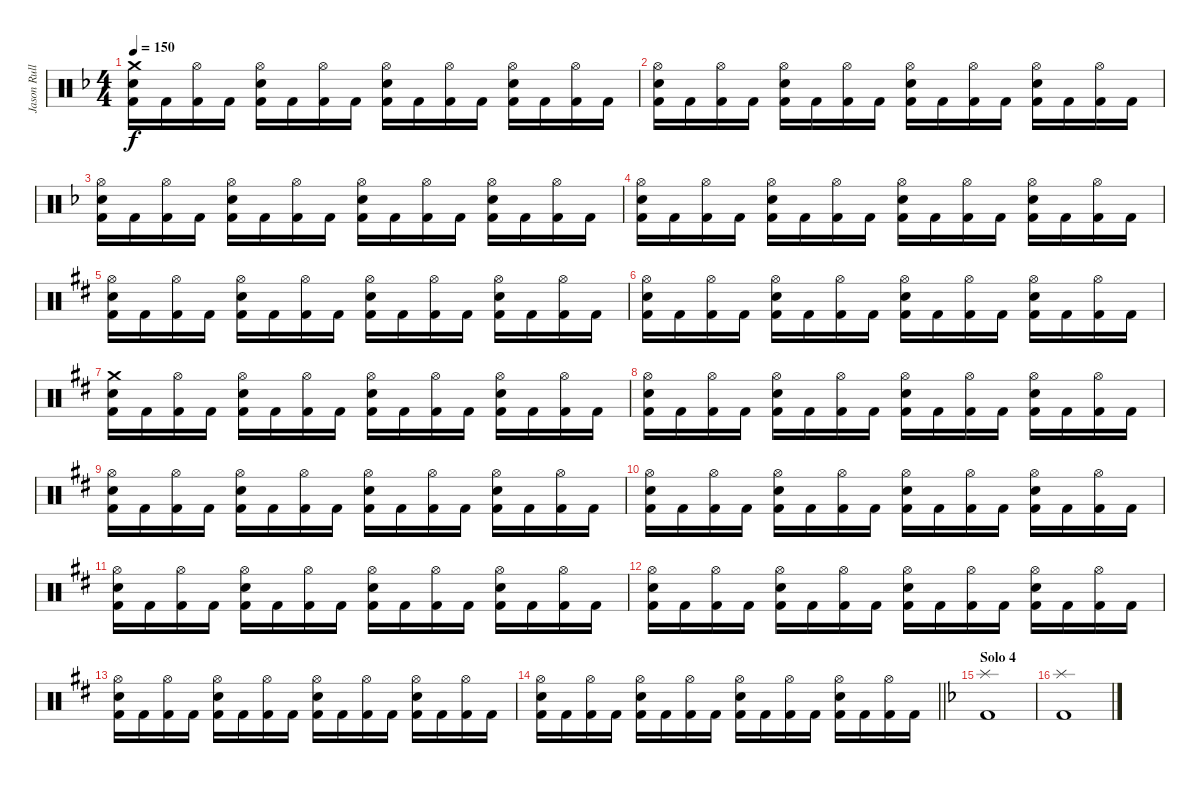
\track ("Jason Rullo" "Jason Rull") {instrument percussion}
\staff {score}
\articulation defaults
\ts (4 4)
\tempo 150
\clef neutral
\ks dminor
("Crash medium (hit)" "Electric Snare (hit)" "Kick (hit) 2").16{dy f} "Kick (hit) 2".16 ("Hi-Hat (open)" "Kick (hit) 2").16 "Kick (hit) 2".16 ("Hi-Hat (open)" "Electric Snare (hit)" "Kick (hit) 2").16 "Kick (hit) 2".16 ("Hi-Hat (open)" "Kick (hit) 2").16 "Kick (hit) 2".16 ("Hi-Hat (open)" "Electric Snare (hit)" "Kick (hit) 2").16 "Kick (hit) 2".16 ("Hi-Hat (open)" "Kick (hit) 2").16 "Kick (hit) 2".16 ("Hi-Hat (open)" "Electric Snare (hit)" "Kick (hit) 2").16 "Kick (hit) 2".16 ("Hi-Hat (open)" "Kick (hit) 2").16 "Kick (hit) 2".16 |
("Hi-Hat (open)" "Electric Snare (hit)" "Kick (hit) 2").16 "Kick (hit) 2".16 ("Hi-Hat (open)" "Kick (hit) 2").16 "Kick (hit) 2".16 ("Hi-Hat (open)" "Electric Snare (hit)" "Kick (hit) 2").16 "Kick (hit) 2".16 ("Hi-Hat (open)" "Kick (hit) 2").16 "Kick (hit) 2".16 ("Hi-Hat (open)" "Electric Snare (hit)" "Kick (hit) 2").16 "Kick (hit) 2".16 ("Hi-Hat (open)" "Kick (hit) 2").16 "Kick (hit) 2".16 ("Hi-Hat (open)" "Electric Snare (hit)" "Kick (hit) 2").16 "Kick (hit) 2".16 ("Hi-Hat (open)" "Kick (hit) 2").16 "Kick (hit) 2".16 |
("Hi-Hat (open)" "Electric Snare (hit)" "Kick (hit) 2").16 "Kick (hit) 2".16 ("Hi-Hat (open)" "Kick (hit) 2").16 "Kick (hit) 2".16 ("Hi-Hat (open)" "Electric Snare (hit)" "Kick (hit) 2").16 "Kick (hit) 2".16 ("Hi-Hat (open)" "Kick (hit) 2").16 "Kick (hit) 2".16 ("Hi-Hat (open)" "Electric Snare (hit)" "Kick (hit) 2").16 "Kick (hit) 2".16 ("Hi-Hat (open)" "Kick (hit) 2").16 "Kick (hit) 2".16 ("Hi-Hat (open)" "Electric Snare (hit)" "Kick (hit) 2").16 "Kick (hit) 2".16 ("Hi-Hat (open)" "Kick (hit) 2").16 "Kick (hit) 2".16 |
("Hi-Hat (open)" "Electric Snare (hit)" "Kick (hit) 2").16 "Kick (hit) 2".16 ("Hi-Hat (open)" "Kick (hit) 2").16 "Kick (hit) 2".16 ("Hi-Hat (open)" "Electric Snare (hit)" "Kick (hit) 2").16 "Kick (hit) 2".16 ("Hi-Hat (open)" "Kick (hit) 2").16 "Kick (hit) 2".16 ("Hi-Hat (open)" "Electric Snare (hit)" "Kick (hit) 2").16 "Kick (hit) 2".16 ("Hi-Hat (open)" "Kick (hit) 2").16 "Kick (hit) 2".16 ("Hi-Hat (open)" "Electric Snare (hit)" "Kick (hit) 2").16 "Kick (hit) 2".16 ("Hi-Hat (open)" "Kick (hit) 2").16 "Kick (hit) 2".16 |
\ks d
("Hi-Hat (open)" "Electric Snare (hit)" "Kick (hit) 2").16 "Kick (hit) 2".16 ("Hi-Hat (open)" "Kick (hit) 2").16 "Kick (hit) 2".16 ("Hi-Hat (open)" "Electric Snare (hit)" "Kick (hit) 2").16 "Kick (hit) 2".16 ("Hi-Hat (open)" "Kick (hit) 2").16 "Kick (hit) 2".16 ("Hi-Hat (open)" "Electric Snare (hit)" "Kick (hit) 2").16 "Kick (hit) 2".16 ("Hi-Hat (open)" "Kick (hit) 2").16 "Kick (hit) 2".16 ("Hi-Hat (open)" "Electric Snare (hit)" "Kick (hit) 2").16 "Kick (hit) 2".16 ("Hi-Hat (open)" "Kick (hit) 2").16 "Kick (hit) 2".16 |
("Hi-Hat (open)" "Electric Snare (hit)" "Kick (hit) 2").16 "Kick (hit) 2".16 ("Hi-Hat (open)" "Kick (hit) 2").16 "Kick (hit) 2".16 ("Hi-Hat (open)" "Electric Snare (hit)" "Kick (hit) 2").16 "Kick (hit) 2".16 ("Hi-Hat (open)" "Kick (hit) 2").16 "Kick (hit) 2".16 ("Hi-Hat (open)" "Electric Snare (hit)" "Kick (hit) 2").16 "Kick (hit) 2".16 ("Hi-Hat (open)" "Kick (hit) 2").16 "Kick (hit) 2".16 ("Hi-Hat (open)" "Electric Snare (hit)" "Kick (hit) 2").16 "Kick (hit) 2".16 ("Hi-Hat (open)" "Kick (hit) 2").16 "Kick (hit) 2".16 |
("Crash medium (hit)" "Electric Snare (hit)" "Kick (hit) 2").16 "Kick (hit) 2".16 ("Hi-Hat (open)" "Kick (hit) 2").16 "Kick (hit) 2".16 ("Hi-Hat (open)" "Electric Snare (hit)" "Kick (hit) 2").16 "Kick (hit) 2".16 ("Hi-Hat (open)" "Kick (hit) 2").16 "Kick (hit) 2".16 ("Hi-Hat (open)" "Electric Snare (hit)" "Kick (hit) 2").16 "Kick (hit) 2".16 ("Hi-Hat (open)" "Kick (hit) 2").16 "Kick (hit) 2".16 ("Hi-Hat (open)" "Electric Snare (hit)" "Kick (hit) 2").16 "Kick (hit) 2".16 ("Hi-Hat (open)" "Kick (hit) 2").16 "Kick (hit) 2".16 |
("Hi-Hat (open)" "Electric Snare (hit)" "Kick (hit) 2").16 "Kick (hit) 2".16 ("Hi-Hat (open)" "Kick (hit) 2").16 "Kick (hit) 2".16 ("Hi-Hat (open)" "Electric Snare (hit)" "Kick (hit) 2").16 "Kick (hit) 2".16 ("Hi-Hat (open)" "Kick (hit) 2").16 "Kick (hit) 2".16 ("Hi-Hat (open)" "Electric Snare (hit)" "Kick (hit) 2").16 "Kick (hit) 2".16 ("Hi-Hat (open)" "Kick (hit) 2").16 "Kick (hit) 2".16 ("Hi-Hat (open)" "Electric Snare (hit)" "Kick (hit) 2").16 "Kick (hit) 2".16 ("Hi-Hat (open)" "Kick (hit) 2").16 "Kick (hit) 2".16 |
("Hi-Hat (open)" "Electric Snare (hit)" "Kick (hit) 2").16 "Kick (hit) 2".16 ("Hi-Hat (open)" "Kick (hit) 2").16 "Kick (hit) 2".16 ("Hi-Hat (open)" "Electric Snare (hit)" "Kick (hit) 2").16 "Kick (hit) 2".16 ("Hi-Hat (open)" "Kick (hit) 2").16 "Kick (hit) 2".16 ("Hi-Hat (open)" "Electric Snare (hit)" "Kick (hit) 2").16 "Kick (hit) 2".16 ("Hi-Hat (open)" "Kick (hit) 2").16 "Kick (hit) 2".16 ("Hi-Hat (open)" "Electric Snare (hit)" "Kick (hit) 2").16 "Kick (hit) 2".16 ("Hi-Hat (open)" "Kick (hit) 2").16 "Kick (hit) 2".16 |
("Hi-Hat (open)" "Electric Snare (hit)" "Kick (hit) 2").16 "Kick (hit) 2".16 ("Hi-Hat (open)" "Kick (hit) 2").16 "Kick (hit) 2".16 ("Hi-Hat (open)" "Electric Snare (hit)" "Kick (hit) 2").16 "Kick (hit) 2".16 ("Hi-Hat (open)" "Kick (hit) 2").16 "Kick (hit) 2".16 ("Hi-Hat (open)" "Electric Snare (hit)" "Kick (hit) 2").16 "Kick (hit) 2".16 ("Hi-Hat (open)" "Kick (hit) 2").16 "Kick (hit) 2".16 ("Hi-Hat (open)" "Electric Snare (hit)" "Kick (hit) 2").16 "Kick (hit) 2".16 ("Hi-Hat (open)" "Kick (hit) 2").16 "Kick (hit) 2".16 |
("Hi-Hat (open)" "Electric Snare (hit)" "Kick (hit) 2").16 "Kick (hit) 2".16 ("Hi-Hat (open)" "Kick (hit) 2").16 "Kick (hit) 2".16 ("Hi-Hat (open)" "Electric Snare (hit)" "Kick (hit) 2").16 "Kick (hit) 2".16 ("Hi-Hat (open)" "Kick (hit) 2").16 "Kick (hit) 2".16 ("Hi-Hat (open)" "Electric Snare (hit)" "Kick (hit) 2").16 "Kick (hit) 2".16 ("Hi-Hat (open)" "Kick (hit) 2").16 "Kick (hit) 2".16 ("Hi-Hat (open)" "Electric Snare (hit)" "Kick (hit) 2").16 "Kick (hit) 2".16 ("Hi-Hat (open)" "Kick (hit) 2").16 "Kick (hit) 2".16 |
("Hi-Hat (open)" "Electric Snare (hit)" "Kick (hit) 2").16 "Kick (hit) 2".16 ("Hi-Hat (open)" "Kick (hit) 2").16 "Kick (hit) 2".16 ("Hi-Hat (open)" "Electric Snare (hit)" "Kick (hit) 2").16 "Kick (hit) 2".16 ("Hi-Hat (open)" "Kick (hit) 2").16 "Kick (hit) 2".16 ("Hi-Hat (open)" "Electric Snare (hit)" "Kick (hit) 2").16 "Kick (hit) 2".16 ("Hi-Hat (open)" "Kick (hit) 2").16 "Kick (hit) 2".16 ("Hi-Hat (open)" "Electric Snare (hit)" "Kick (hit) 2").16 "Kick (hit) 2".16 ("Hi-Hat (open)" "Kick (hit) 2").16 "Kick (hit) 2".16 |
("Hi-Hat (open)" "Electric Snare (hit)" "Kick (hit) 2").16 "Kick (hit) 2".16 ("Hi-Hat (open)" "Kick (hit) 2").16 "Kick (hit) 2".16 ("Hi-Hat (open)" "Electric Snare (hit)" "Kick (hit) 2").16 "Kick (hit) 2".16 ("Hi-Hat (open)" "Kick (hit) 2").16 "Kick (hit) 2".16 ("Hi-Hat (open)" "Electric Snare (hit)" "Kick (hit) 2").16 "Kick (hit) 2".16 ("Hi-Hat (open)" "Kick (hit) 2").16 "Kick (hit) 2".16 ("Hi-Hat (open)" "Electric Snare (hit)" "Kick (hit) 2").16 "Kick (hit) 2".16 ("Hi-Hat (open)" "Kick (hit) 2").16 "Kick (hit) 2".16 |
\barLineRight lightlight
("Hi-Hat (open)" "Electric Snare (hit)" "Kick (hit) 2").16 "Kick (hit) 2".16 ("Hi-Hat (open)" "Kick (hit) 2").16 "Kick (hit) 2".16 ("Hi-Hat (open)" "Electric Snare (hit)" "Kick (hit) 2").16 "Kick (hit) 2".16 ("Hi-Hat (open)" "Kick (hit) 2").16 "Kick (hit) 2".16 ("Hi-Hat (open)" "Electric Snare (hit)" "Kick (hit) 2").16 "Kick (hit) 2".16 ("Hi-Hat (open)" "Kick (hit) 2").16 "Kick (hit) 2".16 ("Hi-Hat (open)" "Electric Snare (hit)" "Kick (hit) 2").16 "Kick (hit) 2".16 ("Hi-Hat (open)" "Kick (hit) 2").16 "Kick (hit) 2".16 |
\section ("" "Solo 4")
\ks dminor
("Splash (hit)" "Kick (hit) 2").1 |
("Splash (hit)" "Kick (hit) 2").1
